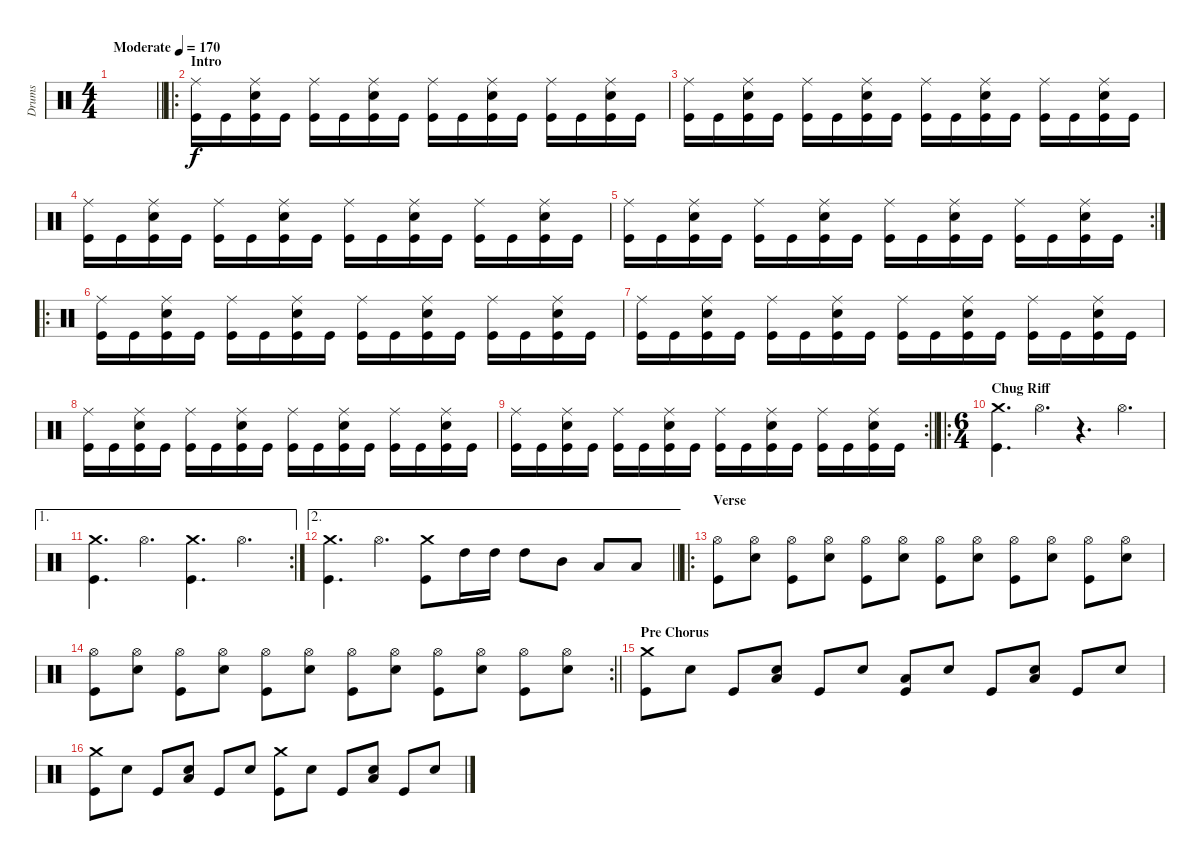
\track ("Drums" "Drums") {instrument percussion}
\staff {score}
\articulation defaults
\ts (4 4)
\tempo (170 "Moderate")
\clef neutral
\barLineRight lightlight
\ks c
|
\ro
\section ("" "Intro")
("Ride (middle)" "Kick (hit)").16 "Kick (hit)".16 ("Ride (middle)" "Snare (hit) 2" "Kick (hit)").16 "Kick (hit)".16 ("Ride (middle)" "Kick (hit)").16 "Kick (hit)".16 ("Ride (middle)" "Snare (hit) 2" "Kick (hit)").16 "Kick (hit)".16 ("Ride (middle)" "Kick (hit)").16 "Kick (hit)".16 ("Ride (middle)" "Snare (hit) 2" "Kick (hit)").16 "Kick (hit)".16 ("Ride (middle)" "Kick (hit)").16 "Kick (hit)".16 ("Ride (middle)" "Snare (hit) 2" "Kick (hit)").16 "Kick (hit)".16 |
("Ride (middle)" "Kick (hit)").16 "Kick (hit)".16 ("Ride (middle)" "Snare (hit) 2" "Kick (hit)").16 "Kick (hit)".16 ("Ride (middle)" "Kick (hit)").16 "Kick (hit)".16 ("Ride (middle)" "Snare (hit) 2" "Kick (hit)").16 "Kick (hit)".16 ("Ride (middle)" "Kick (hit)").16 "Kick (hit)".16 ("Ride (middle)" "Snare (hit) 2" "Kick (hit)").16 "Kick (hit)".16 ("Ride (middle)" "Kick (hit)").16 "Kick (hit)".16 ("Ride (middle)" "Snare (hit) 2" "Kick (hit)").16 "Kick (hit)".16 |
("Ride (middle)" "Kick (hit)").16 "Kick (hit)".16 ("Ride (middle)" "Snare (hit) 2" "Kick (hit)").16 "Kick (hit)".16 ("Ride (middle)" "Kick (hit)").16 "Kick (hit)".16 ("Ride (middle)" "Snare (hit) 2" "Kick (hit)").16 "Kick (hit)".16 ("Ride (middle)" "Kick (hit)").16 "Kick (hit)".16 ("Ride (middle)" "Snare (hit) 2" "Kick (hit)").16 "Kick (hit)".16 ("Ride (middle)" "Kick (hit)").16 "Kick (hit)".16 ("Ride (middle)" "Snare (hit) 2" "Kick (hit)").16 "Kick (hit)".16 |
\rc 2
("Ride (middle)" "Kick (hit)").16 "Kick (hit)".16 ("Ride (middle)" "Snare (hit) 2" "Kick (hit)").16 "Kick (hit)".16 ("Ride (middle)" "Kick (hit)").16 "Kick (hit)".16 ("Ride (middle)" "Snare (hit) 2" "Kick (hit)").16 "Kick (hit)".16 ("Ride (middle)" "Kick (hit)").16 "Kick (hit)".16 ("Ride (middle)" "Snare (hit) 2" "Kick (hit)").16 "Kick (hit)".16 ("Ride (middle)" "Kick (hit)").16 "Kick (hit)".16 ("Ride (middle)" "Snare (hit) 2" "Kick (hit)").16 "Kick (hit)".16 |
\ro
("Ride (middle)" "Kick (hit)").16 "Kick (hit)".16 ("Ride (middle)" "Snare (hit) 2" "Kick (hit)").16 "Kick (hit)".16 ("Ride (middle)" "Kick (hit)").16 "Kick (hit)".16 ("Ride (middle)" "Snare (hit) 2" "Kick (hit)").16 "Kick (hit)".16 ("Ride (middle)" "Kick (hit)").16 "Kick (hit)".16 ("Ride (middle)" "Snare (hit) 2" "Kick (hit)").16 "Kick (hit)".16 ("Ride (middle)" "Kick (hit)").16 "Kick (hit)".16 ("Ride (middle)" "Snare (hit) 2" "Kick (hit)").16 "Kick (hit)".16 |
("Ride (middle)" "Kick (hit)").16 "Kick (hit)".16 ("Ride (middle)" "Snare (hit) 2" "Kick (hit)").16 "Kick (hit)".16 ("Ride (middle)" "Kick (hit)").16 "Kick (hit)".16 ("Ride (middle)" "Snare (hit) 2" "Kick (hit)").16 "Kick (hit)".16 ("Ride (middle)" "Kick (hit)").16 "Kick (hit)".16 ("Ride (middle)" "Snare (hit) 2" "Kick (hit)").16 "Kick (hit)".16 ("Ride (middle)" "Kick (hit)").16 "Kick (hit)".16 ("Ride (middle)" "Snare (hit) 2" "Kick (hit)").16 "Kick (hit)".16 |
("Ride (middle)" "Kick (hit)").16 "Kick (hit)".16 ("Ride (middle)" "Snare (hit) 2" "Kick (hit)").16 "Kick (hit)".16 ("Ride (middle)" "Kick (hit)").16 "Kick (hit)".16 ("Ride (middle)" "Snare (hit) 2" "Kick (hit)").16 "Kick (hit)".16 ("Ride (middle)" "Kick (hit)").16 "Kick (hit)".16 ("Ride (middle)" "Snare (hit) 2" "Kick (hit)").16 "Kick (hit)".16 ("Ride (middle)" "Kick (hit)").16 "Kick (hit)".16 ("Ride (middle)" "Snare (hit) 2" "Kick (hit)").16 "Kick (hit)".16 |
\rc 2
\barLineRight lightlight
("Ride (middle)" "Kick (hit)").16 "Kick (hit)".16 ("Ride (middle)" "Snare (hit) 2" "Kick (hit)").16 "Kick (hit)".16 ("Ride (middle)" "Kick (hit)").16 "Kick (hit)".16 ("Ride (middle)" "Snare (hit) 2" "Kick (hit)").16 "Kick (hit)".16 ("Ride (middle)" "Kick (hit)").16 "Kick (hit)".16 ("Ride (middle)" "Snare (hit) 2" "Kick (hit)").16 "Kick (hit)".16 ("Ride (middle)" "Kick (hit)").16 "Kick (hit)".16 ("Ride (middle)" "Snare (hit) 2" "Kick (hit)").16 "Kick (hit)".16 |
\ro
\ts (6 4)
\section ("" "Chug Riff")
("Crash medium (hit)" "Kick (hit)").4{d} "Hi-Hat (open)".4{d} r.4{d} "Hi-Hat (open)".4{d} |
\ae 1
\rc 2
("Crash medium (hit)" "Kick (hit)").4{d} "Hi-Hat (open)".4{d} ("Crash medium (hit)" "Kick (hit)").4{d} "Hi-Hat (open)".4{d} |
\ae 2
\barLineRight lightlight
("Crash medium (hit)" "Kick (hit)").4{d} "Hi-Hat (open)".4{d} ("Crash medium (hit)" "Kick (hit)").8 "High Tom (hit)".16 "High Tom (hit)".16 "High Tom (hit)".8 "Mid Tom (hit)".8 "Low Tom (hit)".8 "Low Floor Tom (hit)".8 |
\ro
\section ("" "Verse")
("Hi-Hat (open)" "Kick (hit)").8 ("Hi-Hat (open)" "Snare (hit) 2").8 ("Hi-Hat (open)" "Kick (hit)").8 ("Hi-Hat (open)" "Snare (hit) 2").8 ("Hi-Hat (open)" "Kick (hit)").8 ("Hi-Hat (open)" "Snare (hit) 2").8 ("Hi-Hat (open)" "Kick (hit)").8 ("Hi-Hat (open)" "Snare (hit) 2").8 ("Hi-Hat (open)" "Kick (hit)").8 ("Hi-Hat (open)" "Snare (hit) 2").8 ("Hi-Hat (open)" "Kick (hit)").8 ("Hi-Hat (open)" "Snare (hit) 2").8 |
\rc 2
\barLineRight lightlight
("Hi-Hat (open)" "Kick (hit)").8 ("Hi-Hat (open)" "Snare (hit) 2").8 ("Hi-Hat (open)" "Kick (hit)").8 ("Hi-Hat (open)" "Snare (hit) 2").8 ("Hi-Hat (open)" "Kick (hit)").8 ("Hi-Hat (open)" "Snare (hit) 2").8 ("Hi-Hat (open)" "Kick (hit)").8 ("Hi-Hat (open)" "Snare (hit) 2").8 ("Hi-Hat (open)" "Kick (hit)").8 ("Hi-Hat (open)" "Snare (hit) 2").8 ("Hi-Hat (open)" "Kick (hit)").8 ("Hi-Hat (open)" "Snare (hit) 2").8 |
\section ("" "Pre Chorus")
("Crash medium (hit)" "Kick (hit)").8 "Snare (hit) 2".8 "Kick (hit)".8 ("Snare (hit) 2" "Low Floor Tom (hit)").8 "Kick (hit)".8 "Snare (hit) 2".8 ("Low Floor Tom (hit)" "Kick (hit)").8 "Snare (hit) 2".8 "Kick (hit)".8 ("Snare (hit) 2" "Low Floor Tom (hit)").8 "Kick (hit)".8 "Snare (hit) 2".8 |
("Crash medium (hit)" "Kick (hit)").8 "Snare (hit) 2".8 "Kick (hit)".8 ("Snare (hit) 2" "Low Floor Tom (hit)").8 "Kick (hit)".8 "Snare (hit) 2".8 ("Crash medium (hit)" "Kick (hit)").8 "Snare (hit) 2".8 "Kick (hit)".8 ("Snare (hit) 2" "Low Floor Tom (hit)").8 "Kick (hit)".8 "Snare (hit) 2".8
